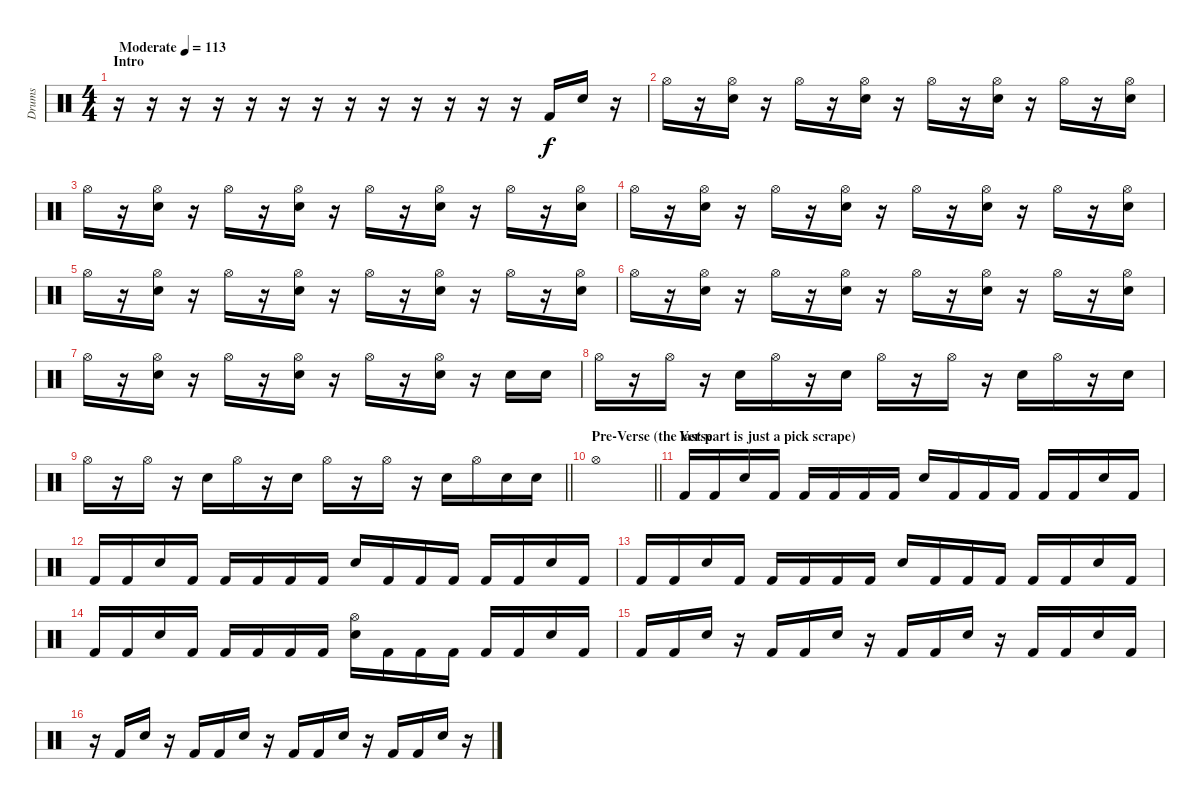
\track ("Drums" "Drums") {instrument percussion}
\staff {score}
\articulation defaults
\ts (4 4)
\section ("" "Intro")
\tempo (113 "Moderate")
\clef neutral
\ks c
r.16{dy f} r.16 r.16 r.16 r.16 r.16 r.16 r.16 r.16 r.16 r.16 r.16 r.16 "Kick (hit) 2".16 "Electric Snare (hit)".16 r.16 |
"Hi-Hat (open)".16 r.16 ("Hi-Hat (open)" "Electric Snare (hit)").16 r.16 "Hi-Hat (open)".16 r.16 ("Hi-Hat (open)" "Electric Snare (hit)").16 r.16 "Hi-Hat (open)".16 r.16 ("Hi-Hat (open)" "Electric Snare (hit)").16 r.16 "Hi-Hat (open)".16 r.16 ("Hi-Hat (open)" "Electric Snare (hit)").16 |
"Hi-Hat (open)".16 r.16 ("Hi-Hat (open)" "Electric Snare (hit)").16 r.16 "Hi-Hat (open)".16 r.16 ("Hi-Hat (open)" "Electric Snare (hit)").16 r.16 "Hi-Hat (open)".16 r.16 ("Hi-Hat (open)" "Electric Snare (hit)").16 r.16 "Hi-Hat (open)".16 r.16 ("Hi-Hat (open)" "Electric Snare (hit)").16 |
"Hi-Hat (open)".16 r.16 ("Hi-Hat (open)" "Electric Snare (hit)").16 r.16 "Hi-Hat (open)".16 r.16 ("Hi-Hat (open)" "Electric Snare (hit)").16 r.16 "Hi-Hat (open)".16 r.16 ("Hi-Hat (open)" "Electric Snare (hit)").16 r.16 "Hi-Hat (open)".16 r.16 ("Hi-Hat (open)" "Electric Snare (hit)").16 |
"Hi-Hat (open)".16 r.16 ("Hi-Hat (open)" "Electric Snare (hit)").16 r.16 "Hi-Hat (open)".16 r.16 ("Hi-Hat (open)" "Electric Snare (hit)").16 r.16 "Hi-Hat (open)".16 r.16 ("Hi-Hat (open)" "Electric Snare (hit)").16 r.16 "Hi-Hat (open)".16 r.16 ("Hi-Hat (open)" "Electric Snare (hit)").16 |
"Hi-Hat (open)".16 r.16 ("Hi-Hat (open)" "Electric Snare (hit)").16 r.16 "Hi-Hat (open)".16 r.16 ("Hi-Hat (open)" "Electric Snare (hit)").16 r.16 "Hi-Hat (open)".16 r.16 ("Hi-Hat (open)" "Electric Snare (hit)").16 r.16 "Hi-Hat (open)".16 r.16 ("Hi-Hat (open)" "Electric Snare (hit)").16 |
"Hi-Hat (open)".16 r.16 ("Hi-Hat (open)" "Electric Snare (hit)").16 r.16 "Hi-Hat (open)".16 r.16 ("Hi-Hat (open)" "Electric Snare (hit)").16 r.16 "Hi-Hat (open)".16 r.16 ("Hi-Hat (open)" "Electric Snare (hit)").16 r.16 "Electric Snare (hit)".16 "Electric Snare (hit)".16 |
"Hi-Hat (open)".16 r.16 "Hi-Hat (open)".16 r.16 "Electric Snare (hit)".16 "Hi-Hat (open)".16 r.16 "Electric Snare (hit)".16 "Hi-Hat (open)".16 r.16 "Hi-Hat (open)".16 r.16 "Electric Snare (hit)".16 "Hi-Hat (open)".16 r.16 "Electric Snare (hit)".16 |
\barLineRight lightlight "Hi-Hat (open)".16
r.16 "Hi-Hat (open)".16 r.16 "Electric Snare (hit)".16 "Hi-Hat (open)".16 r.16 "Electric Snare (hit)".16 "Hi-Hat (open)".16 r.16 "Hi-Hat (open)".16 r.16 "Electric Snare (hit)".16 "Hi-Hat (open)".16 "Electric Snare (hit)".16 "Electric Snare (hit)".16 |
\section ("" "Pre-Verse (the last part is just a pick scrape)")
\barLineRight lightlight "Hi-Hat (open)".1
|
\section ("" "Verse")
"Kick (hit) 2".16 "Kick (hit) 2".16 "Electric Snare (hit)".16 "Kick (hit) 2".16 "Kick (hit) 2".16 "Kick (hit) 2".16 "Kick (hit) 2".16 "Kick (hit) 2".16 "Electric Snare (hit)".16 "Kick (hit) 2".16 "Kick (hit) 2".16 "Kick (hit) 2".16 "Kick (hit) 2".16 "Kick (hit) 2".16 "Electric Snare (hit)".16 "Kick (hit) 2".16 |
"Kick (hit) 2".16 "Kick (hit) 2".16 "Electric Snare (hit)".16 "Kick (hit) 2".16 "Kick (hit) 2".16 "Kick (hit) 2".16 "Kick (hit) 2".16 "Kick (hit) 2".16 "Electric Snare (hit)".16 "Kick (hit) 2".16 "Kick (hit) 2".16 "Kick (hit) 2".16 "Kick (hit) 2".16 "Kick (hit) 2".16 "Electric Snare (hit)".16 "Kick (hit) 2".16 |
"Kick (hit) 2".16 "Kick (hit) 2".16 "Electric Snare (hit)".16 "Kick (hit) 2".16 "Kick (hit) 2".16 "Kick (hit) 2".16 "Kick (hit) 2".16 "Kick (hit) 2".16 "Electric Snare (hit)".16 "Kick (hit) 2".16 "Kick (hit) 2".16 "Kick (hit) 2".16 "Kick (hit) 2".16 "Kick (hit) 2".16 "Electric Snare (hit)".16 "Kick (hit) 2".16 |
"Kick (hit) 2".16 "Kick (hit) 2".16 "Electric Snare (hit)".16 "Kick (hit) 2".16 "Kick (hit) 2".16 "Kick (hit) 2".16 "Kick (hit) 2".16 "Kick (hit) 2".16 ("Hi-Hat (open)" "Electric Snare (hit)").16 "Kick (hit) 2".16 "Kick (hit) 2".16 "Kick (hit) 2".16 "Kick (hit) 2".16 "Kick (hit) 2".16 "Electric Snare (hit)".16 "Kick (hit) 2".16 |
"Kick (hit) 2".16 "Kick (hit) 2".16 "Electric Snare (hit)".16 r.16 "Kick (hit) 2".16 "Kick (hit) 2".16 "Electric Snare (hit)".16 r.16 "Kick (hit) 2".16 "Kick (hit) 2".16 "Electric Snare (hit)".16 r.16 "Kick (hit) 2".16 "Kick (hit) 2".16 "Electric Snare (hit)".16 "Kick (hit) 2".16 |
r.16 "Kick (hit) 2".16 "Electric Snare (hit)".16 r.16 "Kick (hit) 2".16 "Kick (hit) 2".16 "Electric Snare (hit)".16 r.16 "Kick (hit) 2".16 "Kick (hit) 2".16 "Electric Snare (hit)".16 r.16 "Kick (hit) 2".16 "Kick (hit) 2".16 "Electric Snare (hit)".16 r.16
